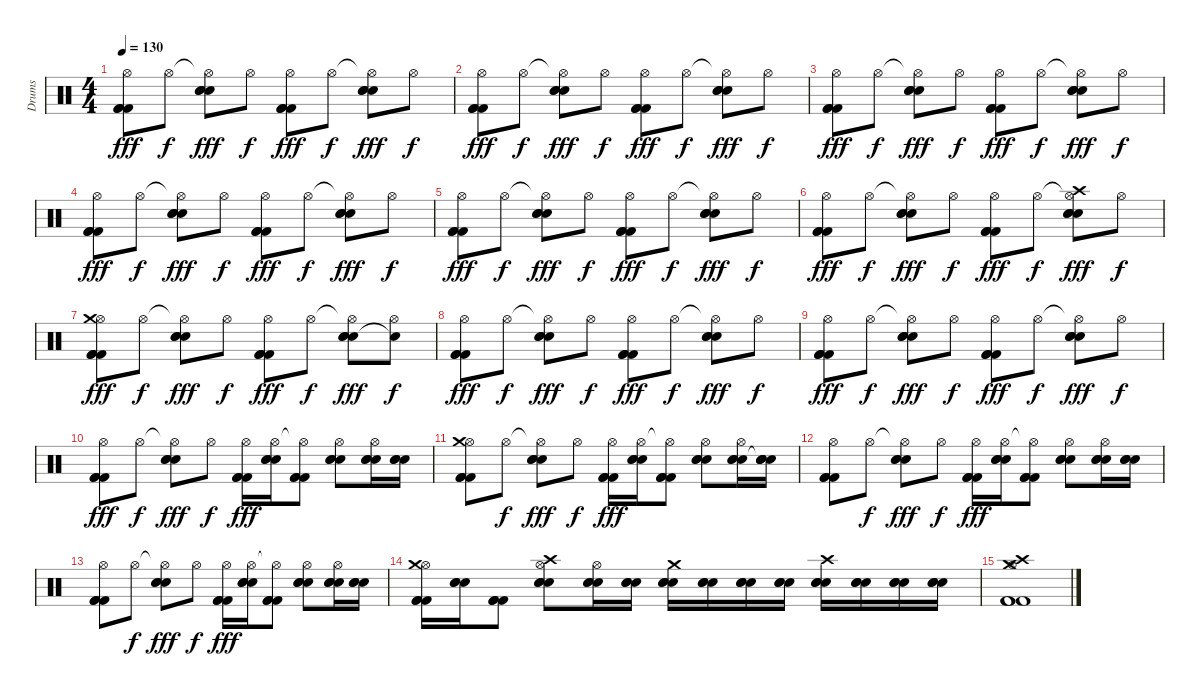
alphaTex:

\track ("Drums" "Drums") {instrument percussion}
\staff {score}
\articulation defaults
\ts (4 4)
\tempo 130
\clef neutral
\ks c
("Hi-Hat (open)" "Kick (hit) 2" "Kick (hit) 2" "Kick (hit) 2").8{dy fff} "Hi-Hat (open)".8{dy f} ("Hi-Hat (open)"{t} "Electric Snare (hit)" "Electric Snare (hit)" "Electric Snare (hit)").8{dy fff} "Hi-Hat (open)".8{dy f} ("Hi-Hat (open)" "Kick (hit) 2" "Kick (hit) 2" "Kick (hit) 2").8{dy fff} "Hi-Hat (open)".8{dy f} ("Hi-Hat (open)"{t} "Electric Snare (hit)" "Electric Snare (hit)" "Electric Snare (hit)").8{dy fff} "Hi-Hat (open)".8{dy f} |
("Hi-Hat (open)" "Kick (hit) 2" "Kick (hit) 2" "Kick (hit) 2").8{dy fff} "Hi-Hat (open)".8{dy f} ("Hi-Hat (open)"{t} "Electric Snare (hit)" "Electric Snare (hit)" "Electric Snare (hit)").8{dy fff} "Hi-Hat (open)".8{dy f} ("Hi-Hat (open)" "Kick (hit) 2" "Kick (hit) 2" "Kick (hit) 2").8{dy fff} "Hi-Hat (open)".8{dy f} ("Hi-Hat (open)"{t} "Electric Snare (hit)" "Electric Snare (hit)" "Electric Snare (hit)").8{dy fff} "Hi-Hat (open)".8{dy f} |
("Hi-Hat (open)" "Kick (hit) 2" "Kick (hit) 2" "Kick (hit) 2").8{dy fff} "Hi-Hat (open)".8{dy f} ("Hi-Hat (open)"{t} "Electric Snare (hit)" "Electric Snare (hit)" "Electric Snare (hit)").8{dy fff} "Hi-Hat (open)".8{dy f} ("Hi-Hat (open)" "Kick (hit) 2" "Kick (hit) 2" "Kick (hit) 2").8{dy fff} "Hi-Hat (open)".8{dy f} ("Hi-Hat (open)"{t} "Electric Snare (hit)" "Electric Snare (hit)" "Electric Snare (hit)").8{dy fff} "Hi-Hat (open)".8{dy f} |
("Hi-Hat (open)" "Kick (hit) 2" "Kick (hit) 2" "Kick (hit) 2").8{dy fff} "Hi-Hat (open)".8{dy f} ("Hi-Hat (open)"{t} "Electric Snare (hit)" "Electric Snare (hit)" "Electric Snare (hit)").8{dy fff} "Hi-Hat (open)".8{dy f} ("Hi-Hat (open)" "Kick (hit) 2" "Kick (hit) 2" "Kick (hit) 2").8{dy fff} "Hi-Hat (open)".8{dy f} ("Hi-Hat (open)"{t} "Electric Snare (hit)" "Electric Snare (hit)" "Electric Snare (hit)").8{dy fff} "Hi-Hat (open)".8{dy f} |
("Hi-Hat (open)" "Kick (hit) 2" "Kick (hit) 2" "Kick (hit) 2").8{dy fff} "Hi-Hat (open)".8{dy f} ("Hi-Hat (open)"{t} "Electric Snare (hit)" "Electric Snare (hit)" "Electric Snare (hit)").8{dy fff} "Hi-Hat (open)".8{dy f} ("Hi-Hat (open)" "Kick (hit) 2" "Kick (hit) 2" "Kick (hit) 2").8{dy fff} "Hi-Hat (open)".8{dy f} ("Hi-Hat (open)"{t} "Electric Snare (hit)" "Electric Snare (hit)" "Electric Snare (hit)").8{dy fff} "Hi-Hat (open)".8{dy f} |
("Hi-Hat (open)" "Kick (hit) 2" "Kick (hit) 2" "Kick (hit) 2").8{dy fff} "Hi-Hat (open)".8{dy f} ("Hi-Hat (open)"{t} "Electric Snare (hit)" "Electric Snare (hit)" "Electric Snare (hit)").8{dy fff} "Hi-Hat (open)".8{dy f} ("Hi-Hat (open)" "Kick (hit) 2" "Kick (hit) 2" "Kick (hit) 2").8{dy fff} "Hi-Hat (open)".8{dy f} ("Hi-Hat (open)"{t} "Electric Snare (hit)" "Electric Snare (hit)" "Electric Snare (hit)" "Crash high (hit)").8{dy fff} "Hi-Hat (open)".8{dy f} |
("Hi-Hat (open)" "Kick (hit) 2" "Kick (hit) 2" "Kick (hit) 2" "Crash medium (hit)").8{dy fff} "Hi-Hat (open)".8{dy f} ("Hi-Hat (open)"{t} "Electric Snare (hit)" "Electric Snare (hit)" "Electric Snare (hit)").8{dy fff} "Hi-Hat (open)".8{dy f} ("Hi-Hat (open)" "Kick (hit) 2" "Kick (hit) 2" "Kick (hit) 2").8{dy fff} "Hi-Hat (open)".8{dy f} ("Hi-Hat (open)"{t} "Electric Snare (hit)" "Electric Snare (hit)" "Electric Snare (hit)").8{dy fff} ("Hi-Hat (open)" "Snare (hit)"{t}).8{dy f} |
("Hi-Hat (open)" "Kick (hit) 2" "Kick (hit) 2" "Kick (hit) 2").8{dy fff} "Hi-Hat (open)".8{dy f} ("Hi-Hat (open)"{t} "Electric Snare (hit)" "Electric Snare (hit)" "Electric Snare (hit)").8{dy fff} "Hi-Hat (open)".8{dy f} ("Hi-Hat (open)" "Kick (hit) 2" "Kick (hit) 2" "Kick (hit) 2").8{dy fff} "Hi-Hat (open)".8{dy f} ("Hi-Hat (open)"{t} "Electric Snare (hit)" "Electric Snare (hit)" "Electric Snare (hit)").8{dy fff} "Hi-Hat (open)".8{dy f} |
("Hi-Hat (open)" "Kick (hit) 2" "Kick (hit) 2" "Kick (hit) 2").8{dy fff} "Hi-Hat (open)".8{dy f} ("Hi-Hat (open)"{t} "Electric Snare (hit)" "Electric Snare (hit)" "Electric Snare (hit)").8{dy fff} "Hi-Hat (open)".8{dy f} ("Hi-Hat (open)" "Kick (hit) 2" "Kick (hit) 2" "Kick (hit) 2").8{dy fff} "Hi-Hat (open)".8{dy f} ("Hi-Hat (open)"{t} "Electric Snare (hit)" "Electric Snare (hit)" "Electric Snare (hit)").8{dy fff} "Hi-Hat (open)".8{dy f} |
("Hi-Hat (open)" "Kick (hit) 2" "Kick (hit) 2" "Kick (hit) 2").8{dy fff} "Hi-Hat (open)".8{dy f} ("Hi-Hat (open)"{t} "Electric Snare (hit)" "Electric Snare (hit)" "Electric Snare (hit)").8{dy fff} "Hi-Hat (open)".8{dy f} ("Hi-Hat (open)" "Kick (hit) 2" "Kick (hit) 2" "Kick (hit) 2").16{dy fff} ("Hi-Hat (open)" "Electric Snare (hit)" "Electric Snare (hit)" "Electric Snare (hit)").16 ("Hi-Hat (open)"{t} "Kick (hit) 2" "Kick (hit) 2" "Kick (hit) 2").8 ("Hi-Hat (open)" "Electric Snare (hit)" "Electric Snare (hit)" "Electric Snare (hit)").8 ("Hi-Hat (open)" "Electric Snare (hit)" "Electric Snare (hit)" "Electric Snare (hit)").16 ("Electric Snare (hit)" "Electric Snare (hit)" "Electric Snare (hit)").16 |
("Hi-Hat (open)" "Kick (hit) 2" "Kick (hit) 2" "Kick (hit) 2" "Crash medium (hit)").8 "Hi-Hat (open)".8{dy f} ("Hi-Hat (open)"{t} "Electric Snare (hit)" "Electric Snare (hit)" "Electric Snare (hit)").8{dy fff} "Hi-Hat (open)".8{dy f} ("Hi-Hat (open)" "Kick (hit) 2" "Kick (hit) 2" "Kick (hit) 2").16{dy fff} ("Hi-Hat (open)" "Electric Snare (hit)" "Electric Snare (hit)" "Electric Snare (hit)").16 ("Hi-Hat (open)"{t} "Kick (hit) 2" "Kick (hit) 2" "Kick (hit) 2").8 ("Hi-Hat (open)" "Electric Snare (hit)" "Electric Snare (hit)" "Electric Snare (hit)").8 ("Hi-Hat (open)" "Electric Snare (hit)" "Electric Snare (hit)" "Electric Snare (hit)").16 ("Electric Snare (hit)" "Electric Snare (hit)" "Electric Snare (hit)" "Snare (hit)"{t}).16 |
("Hi-Hat (open)" "Kick (hit) 2" "Kick (hit) 2" "Kick (hit) 2").8 "Hi-Hat (open)".8{dy f} ("Hi-Hat (open)"{t} "Electric Snare (hit)" "Electric Snare (hit)" "Electric Snare (hit)").8{dy fff} "Hi-Hat (open)".8{dy f} ("Hi-Hat (open)" "Kick (hit) 2" "Kick (hit) 2" "Kick (hit) 2").16{dy fff} ("Hi-Hat (open)" "Electric Snare (hit)" "Electric Snare (hit)" "Electric Snare (hit)").16 ("Hi-Hat (open)"{t} "Kick (hit) 2" "Kick (hit) 2" "Kick (hit) 2").8 ("Hi-Hat (open)" "Electric Snare (hit)" "Electric Snare (hit)" "Electric Snare (hit)").8 ("Hi-Hat (open)" "Electric Snare (hit)" "Electric Snare (hit)" "Electric Snare (hit)").16 ("Electric Snare (hit)" "Electric Snare (hit)" "Electric Snare (hit)").16 |
("Hi-Hat (open)" "Kick (hit) 2" "Kick (hit) 2" "Kick (hit) 2").8 "Hi-Hat (open)".8{dy f} ("Hi-Hat (open)"{t} "Electric Snare (hit)" "Electric Snare (hit)" "Electric Snare (hit)").8{dy fff} "Hi-Hat (open)".8{dy f} ("Hi-Hat (open)" "Kick (hit) 2" "Kick (hit) 2" "Kick (hit) 2").16{dy fff} ("Hi-Hat (open)" "Electric Snare (hit)" "Electric Snare (hit)" "Electric Snare (hit)").16 ("Hi-Hat (open)"{t} "Kick (hit) 2" "Kick (hit) 2" "Kick (hit) 2").8 ("Hi-Hat (open)" "Electric Snare (hit)" "Electric Snare (hit)" "Electric Snare (hit)").8 ("Hi-Hat (open)" "Electric Snare (hit)" "Electric Snare (hit)" "Electric Snare (hit)").16 ("Electric Snare (hit)" "Electric Snare (hit)" "Electric Snare (hit)").16 |
("Hi-Hat (open)" "Kick (hit) 2" "Kick (hit) 2" "Kick (hit) 2" "Crash medium (hit)").16 ("Electric Snare (hit)" "Electric Snare (hit)" "Electric Snare (hit)").16 ("Kick (hit) 2" "Kick (hit) 2" "Kick (hit) 2").8 ("Hi-Hat (open)" "Electric Snare (hit)" "Electric Snare (hit)" "Electric Snare (hit)" "Crash high (hit)").8 ("Hi-Hat (open)" "Electric Snare (hit)" "Electric Snare (hit)" "Electric Snare (hit)").16 ("Electric Snare (hit)" "Electric Snare (hit)" "Electric Snare (hit)").16 ("Electric Snare (hit)" "Electric Snare (hit)" "Electric Snare (hit)" "Crash medium (hit)").16 ("Electric Snare (hit)" "Electric Snare (hit)" "Electric Snare (hit)").16 ("Electric Snare (hit)" "Electric Snare (hit)" "Electric Snare (hit)").16 ("Electric Snare (hit)" "Electric Snare (hit)" "Electric Snare (hit)").16 ("Electric Snare (hit)" "Electric Snare (hit)" "Electric Snare (hit)" "Crash high (hit)").16 ("Electric Snare (hit)" "Electric Snare (hit)" "Electric Snare (hit)").16 ("Electric Snare (hit)" "Electric Snare (hit)" "Electric Snare (hit)").16 ("Electric Snare (hit)" "Electric Snare (hit)" "Electric Snare (hit)").16 |
("Hi-Hat (open)" "Kick (hit) 2" "Kick (hit) 2" "Kick (hit) 2" "Crash medium (hit)" "Crash high (hit)").1
